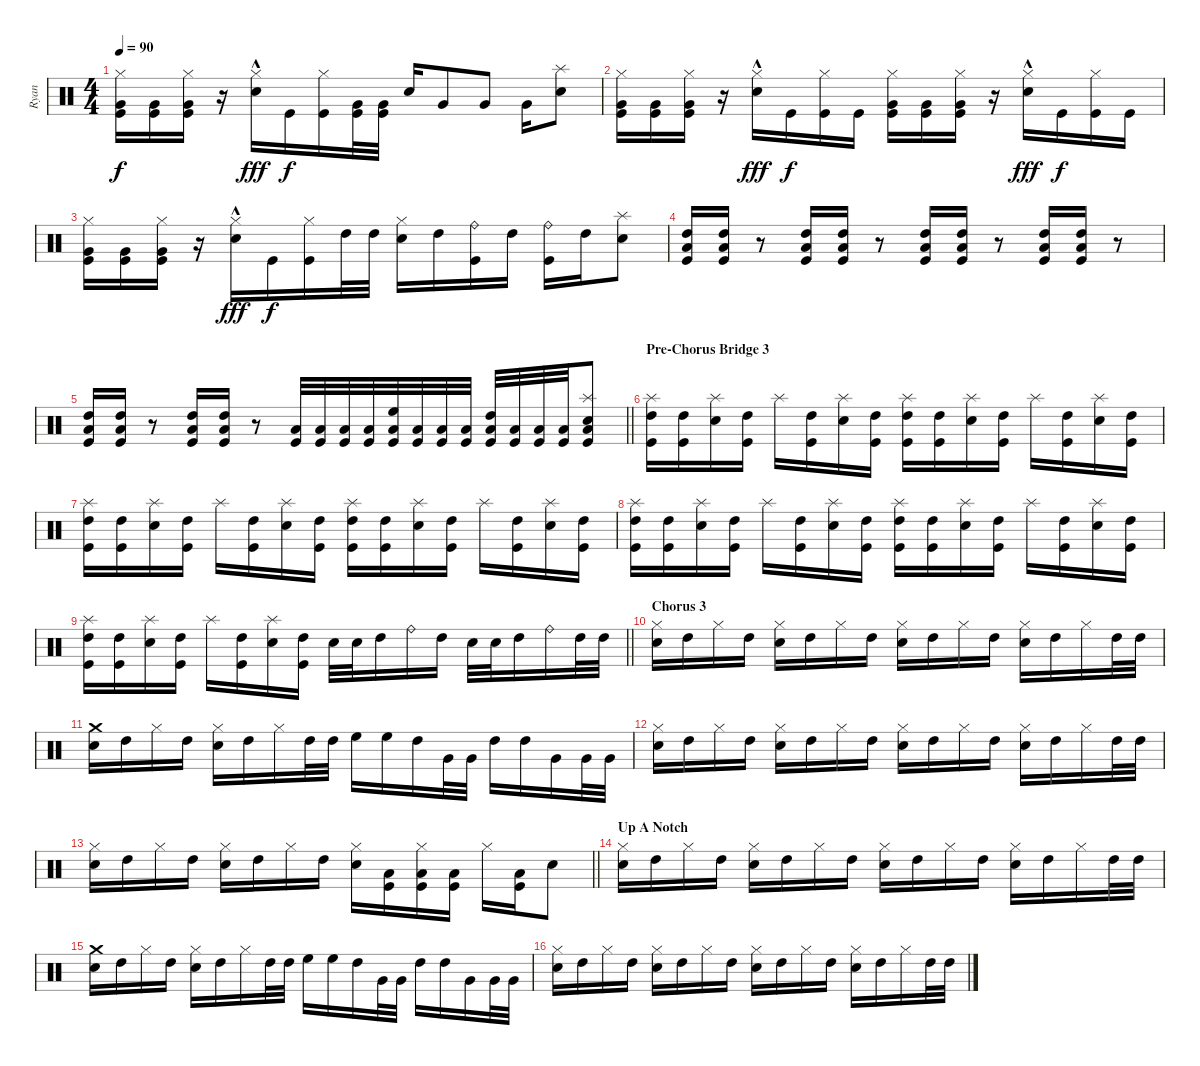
\track ("Ryan" "Ryan") {instrument percussion}
\staff {score}
\articulation defaults
\ts (4 4)
\tempo 90
\clef neutral
\ks c
("Hi-Hat (closed)" "Kick (hit)" "Very Low Tom (hit)").16{dy f} ("Kick (hit)" "Very Low Tom (hit)").16 ("Hi-Hat (closed)" "Kick (hit)" "Very Low Tom (hit)").16 r.16 ("Hi-Hat (closed)" "Snare (hit) 2"{hac}).16{dy fff} "Kick (hit)".16{dy f} ("Hi-Hat (closed)" "Kick (hit)").16 ("Kick (hit)" "Very Low Tom (hit)").32 ("Kick (hit)" "Very Low Tom (hit)").32 "Snare (hit) 2".16 "Very Low Tom (hit)".8 "Very Low Tom (hit)".8 "Very Low Tom (hit)".16 ("Splash (hit)" "Snare (hit) 2").8 |
("Hi-Hat (closed)" "Kick (hit)" "Very Low Tom (hit)").16 ("Kick (hit)" "Very Low Tom (hit)").16 ("Hi-Hat (closed)" "Kick (hit)" "Very Low Tom (hit)").16 r.16 ("Hi-Hat (closed)" "Snare (hit) 2"{hac}).16{dy fff} "Kick (hit)".16{dy f} ("Hi-Hat (closed)" "Kick (hit)").16 "Kick (hit)".16 ("Hi-Hat (closed)" "Kick (hit)" "Very Low Tom (hit)").16 ("Kick (hit)" "Very Low Tom (hit)").16 ("Hi-Hat (closed)" "Kick (hit)" "Very Low Tom (hit)").16 r.16 ("Hi-Hat (closed)" "Snare (hit) 2"{hac}).16{dy fff} "Kick (hit)".16{dy f} ("Hi-Hat (closed)" "Kick (hit)").16 "Kick (hit)".16 |
("Hi-Hat (closed)" "Kick (hit)" "Very Low Tom (hit)").16 ("Kick (hit)" "Very Low Tom (hit)").16 ("Hi-Hat (closed)" "Kick (hit)" "Very Low Tom (hit)").16 r.16 ("Hi-Hat (closed)" "Snare (hit) 2"{hac}).16{dy fff} "Kick (hit)".16{dy f} ("Hi-Hat (closed)" "Kick (hit)").16 "High Tom (hit)".32 "High Tom (hit)".32 ("Hi-Hat (closed)" "Snare (hit) 2").16 "High Tom (hit)".16 ("Ride (bell)" "Kick (hit)").16 "High Tom (hit)".16 ("Ride (bell)" "Kick (hit)").16 "High Tom (hit)".16 ("Splash (hit)" "Snare (hit) 2").8 |
("High Tom (hit)" "Low Floor Tom (hit)" "Kick (hit)").16 ("High Tom (hit)" "Low Floor Tom (hit)" "Kick (hit)").16 r.8 ("High Tom (hit)" "Low Floor Tom (hit)" "Kick (hit)").16 ("High Tom (hit)" "Low Floor Tom (hit)" "Kick (hit)").16 r.8 ("High Tom (hit)" "Low Floor Tom (hit)" "Kick (hit)").16 ("High Tom (hit)" "Low Floor Tom (hit)" "Kick (hit)").16 r.8 ("High Tom (hit)" "Low Floor Tom (hit)" "Kick (hit)").16 ("High Tom (hit)" "Low Floor Tom (hit)" "Kick (hit)").16 r.8 |
\barLineRight lightlight
("High Tom (hit)" "Low Floor Tom (hit)" "Kick (hit)").16 ("High Tom (hit)" "Low Floor Tom (hit)" "Kick (hit)").16 r.8 ("High Tom (hit)" "Low Floor Tom (hit)" "Kick (hit)").16 ("High Tom (hit)" "Low Floor Tom (hit)" "Kick (hit)").16 r.8 ("Kick (hit)" "Low Floor Tom (hit)").32 ("Kick (hit)" "Low Floor Tom (hit)").32 ("Kick (hit)" "Low Floor Tom (hit)").32 ("Kick (hit)" "Low Floor Tom (hit)").32 ("High Floor Tom (hit)" "Kick (hit)" "Low Floor Tom (hit)").32 ("Kick (hit)" "Low Floor Tom (hit)").32 ("Kick (hit)" "Low Floor Tom (hit)").32 ("Kick (hit)" "Low Floor Tom (hit)").32 ("High Tom (hit)" "Kick (hit)" "Low Floor Tom (hit)").32 ("Kick (hit)" "Low Floor Tom (hit)").32 ("Kick (hit)" "Low Floor Tom (hit)").32 ("Kick (hit)" "Low Floor Tom (hit)").32 ("Splash (hit)" "Snare (hit) 2" "Kick (hit)" "Low Floor Tom (hit)").8 |
\section ("" "Pre-Chorus Bridge 3")
("Splash (hit)" "Kick (hit)" "High Tom (hit)").16 ("Kick (hit)" "High Tom (hit)").16 ("Splash (hit)" "Snare (hit) 2").16 ("Kick (hit)" "High Tom (hit)").16 "Splash (hit)".16 ("Kick (hit)" "High Tom (hit)").16 ("Splash (hit)" "Snare (hit) 2").16 ("Kick (hit)" "High Tom (hit)").16 ("Splash (hit)" "Kick (hit)" "High Tom (hit)").16 ("Kick (hit)" "High Tom (hit)").16 ("Splash (hit)" "Snare (hit) 2").16 ("Kick (hit)" "High Tom (hit)").16 "Splash (hit)".16 ("Kick (hit)" "High Tom (hit)").16 ("Splash (hit)" "Snare (hit) 2").16 ("Kick (hit)" "High Tom (hit)").16 |
("Splash (hit)" "Kick (hit)" "High Tom (hit)").16 ("Kick (hit)" "High Tom (hit)").16 ("Splash (hit)" "Snare (hit) 2").16 ("Kick (hit)" "High Tom (hit)").16 "Splash (hit)".16 ("Kick (hit)" "High Tom (hit)").16 ("Splash (hit)" "Snare (hit) 2").16 ("Kick (hit)" "High Tom (hit)").16 ("Splash (hit)" "Kick (hit)" "High Tom (hit)").16 ("Kick (hit)" "High Tom (hit)").16 ("Splash (hit)" "Snare (hit) 2").16 ("Kick (hit)" "High Tom (hit)").16 "Splash (hit)".16 ("Kick (hit)" "High Tom (hit)").16 ("Splash (hit)" "Snare (hit) 2").16 ("Kick (hit)" "High Tom (hit)").16 |
("Splash (hit)" "Kick (hit)" "High Tom (hit)").16 ("Kick (hit)" "High Tom (hit)").16 ("Splash (hit)" "Snare (hit) 2").16 ("Kick (hit)" "High Tom (hit)").16 "Splash (hit)".16 ("Kick (hit)" "High Tom (hit)").16 ("Splash (hit)" "Snare (hit) 2").16 ("Kick (hit)" "High Tom (hit)").16 ("Splash (hit)" "Kick (hit)" "High Tom (hit)").16 ("Kick (hit)" "High Tom (hit)").16 ("Splash (hit)" "Snare (hit) 2").16 ("Kick (hit)" "High Tom (hit)").16 "Splash (hit)".16 ("Kick (hit)" "High Tom (hit)").16 ("Splash (hit)" "Snare (hit) 2").16 ("Kick (hit)" "High Tom (hit)").16 |
\barLineRight lightlight
("Splash (hit)" "Kick (hit)" "High Tom (hit)").16 ("Kick (hit)" "High Tom (hit)").16 ("Splash (hit)" "Snare (hit) 2").16 ("Kick (hit)" "High Tom (hit)").16 "Splash (hit)".16 ("Kick (hit)" "High Tom (hit)").16 ("Splash (hit)" "Snare (hit) 2").16 ("Kick (hit)" "High Tom (hit)").16 "Snare (hit) 2".32 "Snare (hit) 2".32 "High Tom (hit)".16 "Ride (bell)".16 "High Tom (hit)".16 "Snare (hit) 2".32 "Snare (hit) 2".32 "High Tom (hit)".16 "Ride (bell)".16 "High Tom (hit)".32 "High Tom (hit)".32 |
\section ("" "Chorus 3")
("Hi-Hat (closed)" "Snare (hit) 2").16 "High Tom (hit)".16 "Hi-Hat (closed)".16 "High Tom (hit)".16 ("Hi-Hat (closed)" "Snare (hit) 2").16 "High Tom (hit)".16 "Hi-Hat (closed)".16 "High Tom (hit)".16 ("Hi-Hat (closed)" "Snare (hit) 2").16 "High Tom (hit)".16 "Hi-Hat (closed)".16 "High Tom (hit)".16 ("Hi-Hat (closed)" "Snare (hit) 2").16 "High Tom (hit)".16 "Hi-Hat (closed)".16 "High Tom (hit)".32 "High Tom (hit)".32 |
("Crash medium (hit)" "Snare (hit) 2").16 "High Tom (hit)".16 "Hi-Hat (closed)".16 "High Tom (hit)".16 ("Hi-Hat (closed)" "Snare (hit) 2").16 "High Tom (hit)".16 "Hi-Hat (closed)".16 "High Tom (hit)".32 "High Tom (hit)".32 "High Floor Tom (hit)".16 "High Floor Tom (hit)".16 "High Tom (hit)".16 "Very Low Tom (hit)".32 "Very Low Tom (hit)".32 "High Tom (hit)".16 "High Tom (hit)".16 "Very Low Tom (hit)".16 "Very Low Tom (hit)".32 "Very Low Tom (hit)".32 |
("Hi-Hat (closed)" "Snare (hit) 2").16 "High Tom (hit)".16 "Hi-Hat (closed)".16 "High Tom (hit)".16 ("Hi-Hat (closed)" "Snare (hit) 2").16 "High Tom (hit)".16 "Hi-Hat (closed)".16 "High Tom (hit)".16 ("Hi-Hat (closed)" "Snare (hit) 2").16 "High Tom (hit)".16 "Hi-Hat (closed)".16 "High Tom (hit)".16 ("Hi-Hat (closed)" "Snare (hit) 2").16 "High Tom (hit)".16 "Hi-Hat (closed)".16 "High Tom (hit)".32 "High Tom (hit)".32 |
\barLineRight lightlight
("Hi-Hat (closed)" "Snare (hit) 2").16 "High Tom (hit)".16 "Hi-Hat (closed)".16 "High Tom (hit)".16 ("Hi-Hat (closed)" "Snare (hit) 2").16 "High Tom (hit)".16 "Hi-Hat (closed)".16 "High Tom (hit)".16 ("Hi-Hat (closed)" "Snare (hit) 2").16 ("Kick (hit)" "Low Floor Tom (hit)").16 ("Hi-Hat (closed)" "Kick (hit)" "Low Floor Tom (hit)").16 ("Kick (hit)" "Low Floor Tom (hit)").16 "Hi-Hat (closed)".16 ("Kick (hit)" "Low Floor Tom (hit)").16 "Snare (hit) 2".8 |
\section ("" "Up A Notch")
("Hi-Hat (closed)" "Snare (hit) 2").16 "High Tom (hit)".16 "Hi-Hat (closed)".16 "High Tom (hit)".16 ("Hi-Hat (closed)" "Snare (hit) 2").16 "High Tom (hit)".16 "Hi-Hat (closed)".16 "High Tom (hit)".16 ("Hi-Hat (closed)" "Snare (hit) 2").16 "High Tom (hit)".16 "Hi-Hat (closed)".16 "High Tom (hit)".16 ("Hi-Hat (closed)" "Snare (hit) 2").16 "High Tom (hit)".16 "Hi-Hat (closed)".16 "High Tom (hit)".32 "High Tom (hit)".32 |
("Crash medium (hit)" "Snare (hit) 2").16 "High Tom (hit)".16 "Hi-Hat (closed)".16 "High Tom (hit)".16 ("Hi-Hat (closed)" "Snare (hit) 2").16 "High Tom (hit)".16 "Hi-Hat (closed)".16 "High Tom (hit)".32 "High Tom (hit)".32 "High Floor Tom (hit)".16 "High Floor Tom (hit)".16 "High Tom (hit)".16 "Very Low Tom (hit)".32 "Very Low Tom (hit)".32 "High Tom (hit)".16 "High Tom (hit)".16 "Very Low Tom (hit)".16 "Very Low Tom (hit)".32 "Very Low Tom (hit)".32 |
("Hi-Hat (closed)" "Snare (hit) 2").16 "High Tom (hit)".16 "Hi-Hat (closed)".16 "High Tom (hit)".16 ("Hi-Hat (closed)" "Snare (hit) 2").16 "High Tom (hit)".16 "Hi-Hat (closed)".16 "High Tom (hit)".16 ("Hi-Hat (closed)" "Snare (hit) 2").16 "High Tom (hit)".16 "Hi-Hat (closed)".16 "High Tom (hit)".16 ("Hi-Hat (closed)" "Snare (hit) 2").16 "High Tom (hit)".16 "Hi-Hat (closed)".16 "High Tom (hit)".32 "High Tom (hit)".32
